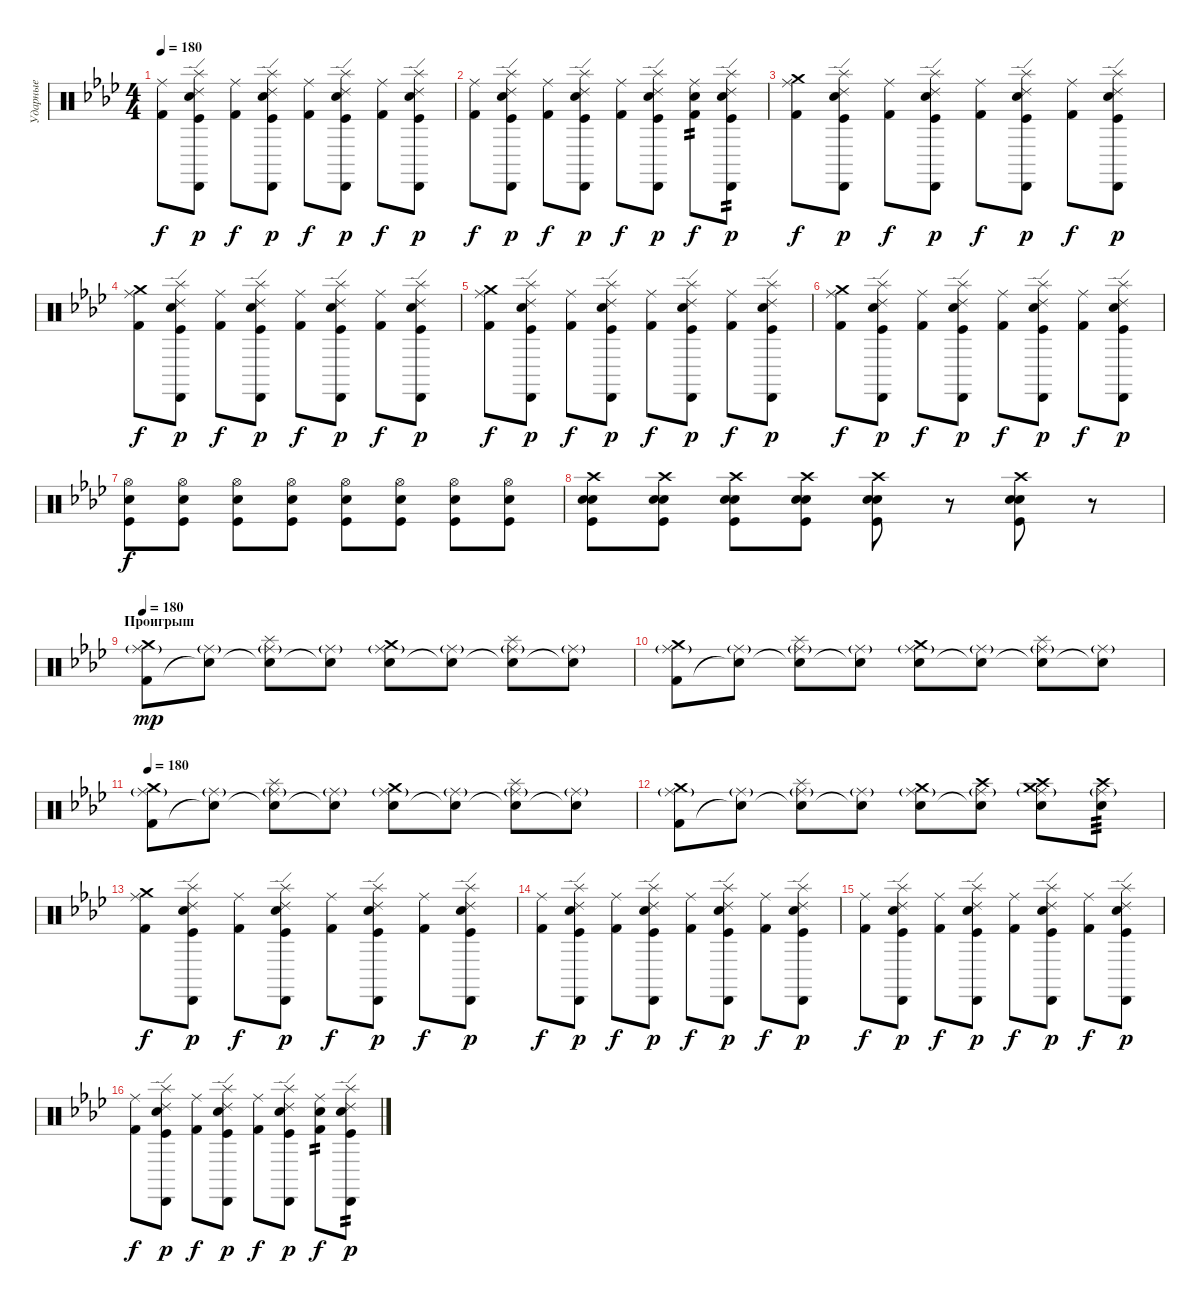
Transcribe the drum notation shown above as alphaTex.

\track ("Ударные" "Ударные") {instrument percussion}
\staff {score}
\articulation defaults
\ts (4 4)
\tempo 180
\clef neutral
\ks ab
("Ride (middle)" "Kick (hit) 2").8{dy f} ("Ride (edge) 2" "Cabasa (hit)" "Electric Snare (hit)" "Kick (hit)" "Splash (hit)").8{dy p} ("Ride (middle)" "Kick (hit) 2").8{dy f} ("Ride (edge) 2" "Cabasa (hit)" "Electric Snare (hit)" "Kick (hit)" "Splash (hit)").8{dy p} ("Ride (middle)" "Kick (hit) 2").8{dy f} ("Ride (edge) 2" "Cabasa (hit)" "Electric Snare (hit)" "Kick (hit)" "Splash (hit)").8{dy p} ("Ride (middle)" "Kick (hit) 2").8{dy f} ("Ride (edge) 2" "Cabasa (hit)" "Electric Snare (hit)" "Kick (hit)" "Splash (hit)").8{dy p} |
("Ride (middle)" "Kick (hit) 2").8{dy f} ("Ride (edge) 2" "Cabasa (hit)" "Electric Snare (hit)" "Kick (hit)" "Splash (hit)").8{dy p} ("Ride (middle)" "Kick (hit) 2").8{dy f} ("Ride (edge) 2" "Cabasa (hit)" "Electric Snare (hit)" "Kick (hit)" "Splash (hit)").8{dy p} ("Ride (middle)" "Kick (hit) 2").8{dy f} ("Ride (edge) 2" "Cabasa (hit)" "Electric Snare (hit)" "Kick (hit)" "Splash (hit)").8{dy p} ("Ride (middle)" "Kick (hit) 2" "Electric Snare (hit)").8{tp 2 dy f} ("Ride (edge) 2" "Cabasa (hit)" "Electric Snare (hit)" "Kick (hit)" "Splash (hit)").8{tp 2 dy p} |
("Ride (middle)" "Kick (hit) 2" "Crash medium (hit)").8{dy f} ("Ride (edge) 2" "Cabasa (hit)" "Electric Snare (hit)" "Kick (hit)" "Splash (hit)").8{dy p} ("Ride (middle)" "Kick (hit) 2").8{dy f} ("Ride (edge) 2" "Cabasa (hit)" "Electric Snare (hit)" "Kick (hit)" "Splash (hit)").8{dy p} ("Ride (middle)" "Kick (hit) 2").8{dy f} ("Ride (edge) 2" "Cabasa (hit)" "Electric Snare (hit)" "Kick (hit)" "Splash (hit)").8{dy p} ("Ride (middle)" "Kick (hit) 2").8{dy f} ("Ride (edge) 2" "Cabasa (hit)" "Electric Snare (hit)" "Kick (hit)" "Splash (hit)").8{dy p} |
("Ride (middle)" "Kick (hit) 2" "Crash medium (hit)").8{dy f} ("Ride (edge) 2" "Cabasa (hit)" "Electric Snare (hit)" "Kick (hit)" "Splash (hit)").8{dy p} ("Ride (middle)" "Kick (hit) 2").8{dy f} ("Ride (edge) 2" "Cabasa (hit)" "Electric Snare (hit)" "Kick (hit)" "Splash (hit)").8{dy p} ("Ride (middle)" "Kick (hit) 2").8{dy f} ("Ride (edge) 2" "Cabasa (hit)" "Electric Snare (hit)" "Kick (hit)" "Splash (hit)").8{dy p} ("Ride (middle)" "Kick (hit) 2").8{dy f} ("Ride (edge) 2" "Cabasa (hit)" "Electric Snare (hit)" "Kick (hit)" "Splash (hit)").8{dy p} |
("Ride (middle)" "Kick (hit) 2" "Crash medium (hit)").8{dy f} ("Ride (edge) 2" "Cabasa (hit)" "Electric Snare (hit)" "Kick (hit)" "Splash (hit)").8{dy p} ("Ride (middle)" "Kick (hit) 2").8{dy f} ("Ride (edge) 2" "Cabasa (hit)" "Electric Snare (hit)" "Kick (hit)" "Splash (hit)").8{dy p} ("Ride (middle)" "Kick (hit) 2").8{dy f} ("Ride (edge) 2" "Cabasa (hit)" "Electric Snare (hit)" "Kick (hit)" "Splash (hit)").8{dy p} ("Ride (middle)" "Kick (hit) 2").8{dy f} ("Ride (edge) 2" "Cabasa (hit)" "Electric Snare (hit)" "Kick (hit)" "Splash (hit)").8{dy p} |
("Ride (middle)" "Kick (hit) 2" "Crash medium (hit)").8{dy f} ("Ride (edge) 2" "Cabasa (hit)" "Electric Snare (hit)" "Kick (hit)" "Splash (hit)").8{dy p} ("Ride (middle)" "Kick (hit) 2").8{dy f} ("Ride (edge) 2" "Cabasa (hit)" "Electric Snare (hit)" "Kick (hit)" "Splash (hit)").8{dy p} ("Ride (middle)" "Kick (hit) 2").8{dy f} ("Ride (edge) 2" "Cabasa (hit)" "Electric Snare (hit)" "Kick (hit)" "Splash (hit)").8{dy p} ("Ride (middle)" "Kick (hit) 2").8{dy f} ("Ride (edge) 2" "Cabasa (hit)" "Electric Snare (hit)" "Kick (hit)" "Splash (hit)").8{dy p} |
("Electric Snare (hit)" "Kick (hit)" "Hi-Hat (open)").8{dy f} ("Kick (hit)" "Electric Snare (hit)" "Hi-Hat (open)").8 ("Kick (hit)" "Electric Snare (hit)" "Hi-Hat (open)").8 ("Kick (hit)" "Electric Snare (hit)" "Hi-Hat (open)").8 ("Kick (hit)" "Electric Snare (hit)" "Hi-Hat (open)").8 ("Kick (hit)" "Electric Snare (hit)" "Hi-Hat (open)").8 ("Kick (hit)" "Electric Snare (hit)" "Hi-Hat (open)").8 ("Electric Snare (hit)" "Kick (hit)" "Hi-Hat (open)").8 |
("Kick (hit)" "Snare (hit) 2" "Snare (hit) 2" "Crash high (hit)").8 ("Kick (hit)" "Snare (hit) 2" "Snare (hit) 2" "Crash high (hit)").8 ("Kick (hit)" "Snare (hit) 2" "Snare (hit) 2" "Crash high (hit)").8 ("Kick (hit)" "Snare (hit) 2" "Snare (hit) 2" "Crash high (hit)").8 ("Kick (hit)" "Snare (hit) 2" "Snare (hit) 2" "Crash high (hit)").8 r.8 ("Kick (hit)" "Snare (hit) 2" "Snare (hit) 2" "Crash high (hit)").8 r.8 |
\section ("" "Проигрыш")
\tempo 180
("Kick (hit) 2" "Crash medium (hit)" "Ride (middle)"{g}).8{dy mp} ("Electric Snare (hit)"{t} "Ride (middle)"{g}).8 ("Snare (hit)"{t} "Splash (hit)" "Ride (middle)"{g}).8 ("Snare (hit)"{t} "Ride (middle)"{g}).8 ("Electric Snare (hit)" "Crash medium (hit)" "Ride (middle)"{g}).8 ("Snare (hit)"{t} "Ride (middle)"{g}).8 ("Snare (hit)"{t} "Splash (hit)" "Ride (middle)"{g}).8 ("Snare (hit)"{t} "Ride (middle)"{g}).8 |
("Kick (hit) 2" "Crash medium (hit)" "Ride (middle)"{g}).8 ("Electric Snare (hit)"{t} "Ride (middle)"{g}).8 ("Snare (hit)"{t} "Splash (hit)" "Ride (middle)"{g}).8 ("Snare (hit)"{t} "Ride (middle)"{g}).8 ("Electric Snare (hit)" "Crash medium (hit)" "Ride (middle)"{g}).8 ("Snare (hit)"{t} "Ride (middle)"{g}).8 ("Snare (hit)"{t} "Splash (hit)" "Ride (middle)"{g}).8 ("Snare (hit)"{t} "Ride (middle)"{g}).8 |
\tempo 180
("Kick (hit) 2" "Crash medium (hit)" "Ride (middle)"{g}).8 ("Electric Snare (hit)"{t} "Ride (middle)"{g}).8 ("Snare (hit)"{t} "Splash (hit)" "Ride (middle)"{g}).8 ("Snare (hit)"{t} "Ride (middle)"{g}).8 ("Electric Snare (hit)" "Crash medium (hit)" "Ride (middle)"{g}).8 ("Snare (hit)"{t} "Ride (middle)"{g}).8 ("Snare (hit)"{t} "Splash (hit)" "Ride (middle)"{g}).8 ("Snare (hit)"{t} "Ride (middle)"{g}).8 |
("Kick (hit) 2" "Crash medium (hit)" "Ride (middle)"{g}).8 ("Electric Snare (hit)"{t} "Ride (middle)"{g}).8 ("Snare (hit)"{t} "Splash (hit)" "Ride (middle)"{g}).8 ("Snare (hit)"{t} "Ride (middle)"{g}).8 ("Electric Snare (hit)" "Crash medium (hit)" "Ride (middle)"{g}).8 ("Snare (hit)"{t} "Ride (middle)"{g} "Crash high (hit)").8 ("Electric Snare (hit)" "Crash medium (hit)" "Ride (middle)"{g} "Crash high (hit)").8 ("Electric Snare (hit)" "Ride (middle)"{g} "Crash high (hit)").8{tp 3} |
("Ride (middle)" "Kick (hit) 2" "Crash medium (hit)").8{dy f} ("Ride (edge) 2" "Cabasa (hit)" "Electric Snare (hit)" "Kick (hit)" "Splash (hit)").8{dy p} ("Ride (middle)" "Kick (hit) 2").8{dy f} ("Ride (edge) 2" "Cabasa (hit)" "Electric Snare (hit)" "Kick (hit)" "Splash (hit)").8{dy p} ("Ride (middle)" "Kick (hit) 2").8{dy f} ("Ride (edge) 2" "Cabasa (hit)" "Electric Snare (hit)" "Kick (hit)" "Splash (hit)").8{dy p} ("Ride (middle)" "Kick (hit) 2").8{dy f} ("Ride (edge) 2" "Cabasa (hit)" "Electric Snare (hit)" "Kick (hit)" "Splash (hit)").8{dy p} |
("Ride (middle)" "Kick (hit) 2").8{dy f} ("Ride (edge) 2" "Cabasa (hit)" "Electric Snare (hit)" "Kick (hit)" "Splash (hit)").8{dy p} ("Ride (middle)" "Kick (hit) 2").8{dy f} ("Ride (edge) 2" "Cabasa (hit)" "Electric Snare (hit)" "Kick (hit)" "Splash (hit)").8{dy p} ("Ride (middle)" "Kick (hit) 2").8{dy f} ("Ride (edge) 2" "Cabasa (hit)" "Electric Snare (hit)" "Kick (hit)" "Splash (hit)").8{dy p} ("Ride (middle)" "Kick (hit) 2").8{dy f} ("Ride (edge) 2" "Cabasa (hit)" "Electric Snare (hit)" "Kick (hit)" "Splash (hit)").8{dy p} |
("Ride (middle)" "Kick (hit) 2").8{dy f} ("Ride (edge) 2" "Cabasa (hit)" "Electric Snare (hit)" "Kick (hit)" "Splash (hit)").8{dy p} ("Ride (middle)" "Kick (hit) 2").8{dy f} ("Ride (edge) 2" "Cabasa (hit)" "Electric Snare (hit)" "Kick (hit)" "Splash (hit)").8{dy p} ("Ride (middle)" "Kick (hit) 2").8{dy f} ("Ride (edge) 2" "Cabasa (hit)" "Electric Snare (hit)" "Kick (hit)" "Splash (hit)").8{dy p} ("Ride (middle)" "Kick (hit) 2").8{dy f} ("Ride (edge) 2" "Cabasa (hit)" "Electric Snare (hit)" "Kick (hit)" "Splash (hit)").8{dy p} |
("Ride (middle)" "Kick (hit) 2").8{dy f} ("Ride (edge) 2" "Cabasa (hit)" "Electric Snare (hit)" "Kick (hit)" "Splash (hit)").8{dy p} ("Ride (middle)" "Kick (hit) 2").8{dy f} ("Ride (edge) 2" "Cabasa (hit)" "Electric Snare (hit)" "Kick (hit)" "Splash (hit)").8{dy p} ("Ride (middle)" "Kick (hit) 2").8{dy f} ("Ride (edge) 2" "Cabasa (hit)" "Electric Snare (hit)" "Kick (hit)" "Splash (hit)").8{dy p} ("Ride (middle)" "Kick (hit) 2" "Electric Snare (hit)").8{tp 2 dy f} ("Ride (edge) 2" "Cabasa (hit)" "Electric Snare (hit)" "Kick (hit)" "Splash (hit)").8{tp 2 dy p}
